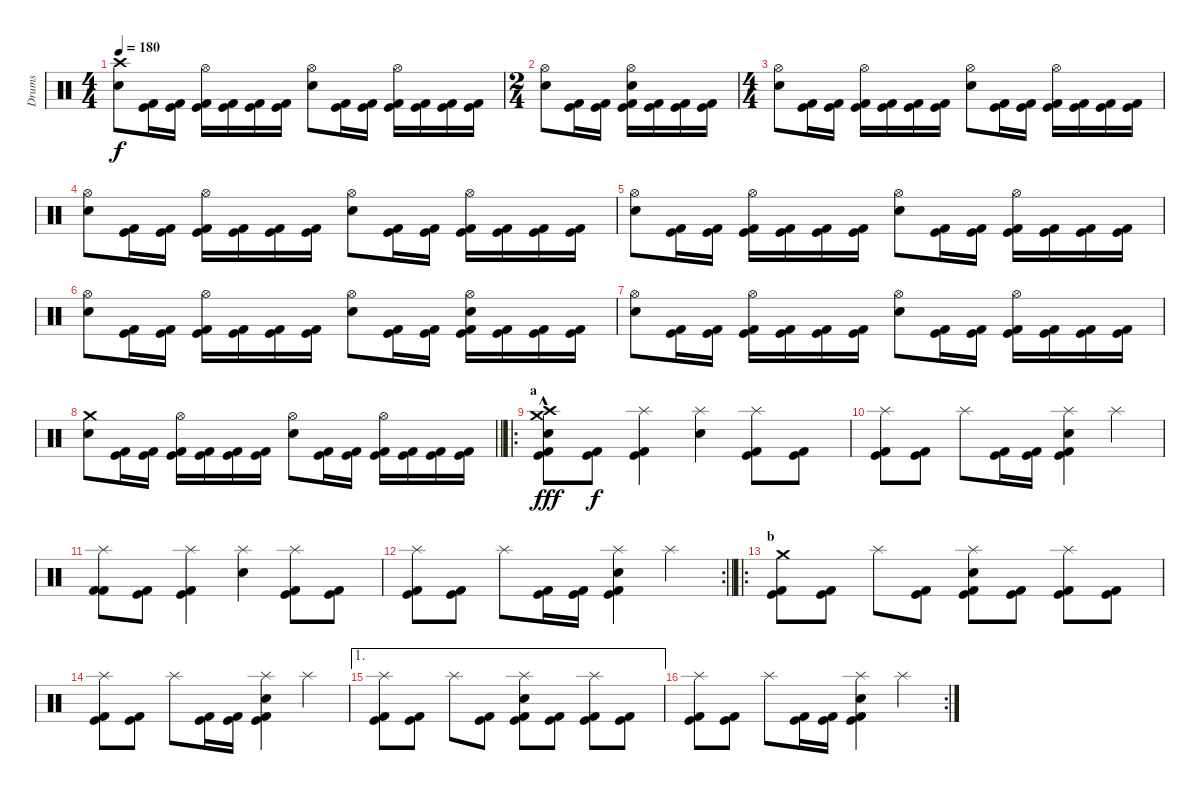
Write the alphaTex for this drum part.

\track ("Drums" "Drums") {instrument percussion}
\staff {score}
\articulation defaults
\ts (4 4)
\tempo 180
\clef neutral
\ks c
("Crash high (hit)" "Electric Snare (hit)").8{dy f} ("Kick (hit) 2" "Kick (hit)").16 ("Kick (hit) 2" "Kick (hit)").16 ("Kick (hit) 2" "Hi-Hat (open)" "Kick (hit)").16 ("Kick (hit) 2" "Kick (hit)").16 ("Kick (hit) 2" "Kick (hit)").16 ("Kick (hit) 2" "Kick (hit)").16 ("Hi-Hat (open)" "Electric Snare (hit)").8 ("Kick (hit) 2" "Kick (hit)").16 ("Kick (hit) 2" "Kick (hit)").16 ("Kick (hit) 2" "Hi-Hat (open)" "Kick (hit)").16 ("Kick (hit) 2" "Kick (hit)").16 ("Kick (hit) 2" "Kick (hit)").16 ("Kick (hit) 2" "Kick (hit)").16 |
\ts (2 4)
("Hi-Hat (open)" "Electric Snare (hit)").8 ("Kick (hit) 2" "Kick (hit)").16 ("Kick (hit) 2" "Kick (hit)").16 ("Kick (hit) 2" "Electric Snare (hit)" "Hi-Hat (open)" "Kick (hit)").16 ("Kick (hit) 2" "Kick (hit)").16 ("Kick (hit) 2" "Kick (hit)").16 ("Kick (hit) 2" "Kick (hit)").16 |
\ts (4 4)
("Hi-Hat (open)" "Electric Snare (hit)").8 ("Kick (hit) 2" "Kick (hit)").16 ("Kick (hit) 2" "Kick (hit)").16 ("Kick (hit) 2" "Hi-Hat (open)" "Kick (hit)").16 ("Kick (hit) 2" "Kick (hit)").16 ("Kick (hit) 2" "Kick (hit)").16 ("Kick (hit) 2" "Kick (hit)").16 ("Hi-Hat (open)" "Electric Snare (hit)").8 ("Kick (hit) 2" "Kick (hit)").16 ("Kick (hit) 2" "Kick (hit)").16 ("Kick (hit) 2" "Hi-Hat (open)" "Kick (hit)").16 ("Kick (hit) 2" "Kick (hit)").16 ("Kick (hit) 2" "Kick (hit)").16 ("Kick (hit) 2" "Kick (hit)").16 |
("Hi-Hat (open)" "Electric Snare (hit)").8 ("Kick (hit) 2" "Kick (hit)").16 ("Kick (hit) 2" "Kick (hit)").16 ("Kick (hit) 2" "Hi-Hat (open)" "Kick (hit)").16 ("Kick (hit) 2" "Kick (hit)").16 ("Kick (hit) 2" "Kick (hit)").16 ("Kick (hit) 2" "Kick (hit)").16 ("Hi-Hat (open)" "Electric Snare (hit)").8 ("Kick (hit) 2" "Kick (hit)").16 ("Kick (hit) 2" "Kick (hit)").16 ("Kick (hit) 2" "Hi-Hat (open)" "Kick (hit)").16 ("Kick (hit) 2" "Kick (hit)").16 ("Kick (hit) 2" "Kick (hit)").16 ("Kick (hit) 2" "Kick (hit)").16 |
("Hi-Hat (open)" "Electric Snare (hit)").8 ("Kick (hit) 2" "Kick (hit)").16 ("Kick (hit) 2" "Kick (hit)").16 ("Kick (hit) 2" "Hi-Hat (open)" "Kick (hit)").16 ("Kick (hit) 2" "Kick (hit)").16 ("Kick (hit) 2" "Kick (hit)").16 ("Kick (hit) 2" "Kick (hit)").16 ("Hi-Hat (open)" "Electric Snare (hit)").8 ("Kick (hit) 2" "Kick (hit)").16 ("Kick (hit) 2" "Kick (hit)").16 ("Kick (hit) 2" "Hi-Hat (open)" "Kick (hit)").16 ("Kick (hit) 2" "Kick (hit)").16 ("Kick (hit) 2" "Kick (hit)").16 ("Kick (hit) 2" "Kick (hit)").16 |
("Hi-Hat (open)" "Electric Snare (hit)").8 ("Kick (hit) 2" "Kick (hit)").16 ("Kick (hit) 2" "Kick (hit)").16 ("Kick (hit) 2" "Hi-Hat (open)" "Kick (hit)").16 ("Kick (hit) 2" "Kick (hit)").16 ("Kick (hit) 2" "Kick (hit)").16 ("Kick (hit) 2" "Kick (hit)").16 ("Hi-Hat (open)" "Electric Snare (hit)").8 ("Kick (hit) 2" "Kick (hit)").16 ("Kick (hit) 2" "Kick (hit)").16 ("Kick (hit) 2" "Hi-Hat (open)" "Kick (hit)" "Electric Snare (hit)").16 ("Kick (hit) 2" "Kick (hit)").16 ("Kick (hit) 2" "Kick (hit)").16 ("Kick (hit) 2" "Kick (hit)").16 |
("Hi-Hat (open)" "Electric Snare (hit)").8 ("Kick (hit) 2" "Kick (hit)").16 ("Kick (hit) 2" "Kick (hit)").16 ("Kick (hit) 2" "Hi-Hat (open)" "Kick (hit)").16 ("Kick (hit) 2" "Kick (hit)").16 ("Kick (hit) 2" "Kick (hit)").16 ("Kick (hit) 2" "Kick (hit)").16 ("Hi-Hat (open)" "Electric Snare (hit)").8 ("Kick (hit) 2" "Kick (hit)").16 ("Kick (hit) 2" "Kick (hit)").16 ("Kick (hit) 2" "Hi-Hat (open)" "Kick (hit)").16 ("Kick (hit) 2" "Kick (hit)").16 ("Kick (hit) 2" "Kick (hit)").16 ("Kick (hit) 2" "Kick (hit)").16 |
\barLineRight lightlight
("Crash medium (hit)" "Electric Snare (hit)").8 ("Kick (hit) 2" "Kick (hit)").16 ("Kick (hit) 2" "Kick (hit)").16 ("Kick (hit) 2" "Hi-Hat (open)" "Kick (hit)").16 ("Kick (hit) 2" "Kick (hit)").16 ("Kick (hit) 2" "Kick (hit)").16 ("Kick (hit) 2" "Kick (hit)").16 ("Hi-Hat (open)" "Electric Snare (hit)").8 ("Kick (hit) 2" "Kick (hit)").16 ("Kick (hit) 2" "Kick (hit)").16 ("Kick (hit) 2" "Hi-Hat (open)" "Kick (hit)").16 ("Kick (hit) 2" "Kick (hit)").16 ("Kick (hit) 2" "Kick (hit)").16 ("Kick (hit) 2" "Kick (hit)").16 |
\ro
\section ("" "a")
("Kick (hit) 2" "Snare (hit) 2" "Kick (hit)" "Crash high (hit)"{hac} "Crash medium (hit)"{hac}).8{dy fff} ("Kick (hit) 2" "Kick (hit)").8{dy f} ("Kick (hit) 2" "Kick (hit)" "Splash (hit)").4 ("Electric Snare (hit)" "Splash (hit)").4 ("Kick (hit) 2" "Kick (hit)" "Splash (hit)").8 ("Kick (hit) 2" "Kick (hit)").8 |
("Kick (hit) 2" "Kick (hit)" "Splash (hit)").8 ("Kick (hit) 2" "Kick (hit)").8 "Splash (hit)".8 ("Kick (hit) 2" "Kick (hit)").16 ("Kick (hit) 2" "Kick (hit)").16 ("Kick (hit) 2" "Electric Snare (hit)" "Kick (hit)" "Splash (hit)").4 "Splash (hit)".4 |
("Kick (hit) 2" "Kick (hit) 2" "Splash (hit)").8 ("Kick (hit) 2" "Kick (hit)").8 ("Kick (hit) 2" "Kick (hit)" "Splash (hit)").4 ("Electric Snare (hit)" "Splash (hit)").4 ("Kick (hit) 2" "Kick (hit)" "Splash (hit)").8 ("Kick (hit) 2" "Kick (hit)").8 |
\rc 2
\barLineRight lightlight
("Kick (hit) 2" "Kick (hit)" "Splash (hit)").8 ("Kick (hit) 2" "Kick (hit)").8 "Splash (hit)".8 ("Kick (hit) 2" "Kick (hit)").16 ("Kick (hit) 2" "Kick (hit)").16 ("Kick (hit) 2" "Electric Snare (hit)" "Kick (hit)" "Splash (hit)").4 "Splash (hit)".4 |
\ro
\section ("" "b")
("Kick (hit) 2" "Kick (hit)" "Crash medium (hit)").8 ("Kick (hit) 2" "Kick (hit)").8 "Splash (hit)".8 ("Kick (hit) 2" "Kick (hit)").8 ("Kick (hit) 2" "Kick (hit)" "Splash (hit)" "Electric Snare (hit)").8 ("Kick (hit) 2" "Kick (hit)").8 ("Kick (hit) 2" "Kick (hit)" "Splash (hit)").8 ("Kick (hit) 2" "Kick (hit)").8 |
("Kick (hit) 2" "Kick (hit)" "Splash (hit)").8 ("Kick (hit) 2" "Kick (hit)").8 "Splash (hit)".8 ("Kick (hit) 2" "Kick (hit)").16 ("Kick (hit) 2" "Kick (hit)").16 ("Kick (hit) 2" "Electric Snare (hit)" "Kick (hit)" "Splash (hit)").4 "Splash (hit)".4 |
\ae 1
("Kick (hit) 2" "Kick (hit)" "Splash (hit)").8 ("Kick (hit) 2" "Kick (hit)").8 "Splash (hit)".8 ("Kick (hit) 2" "Kick (hit)").8 ("Kick (hit) 2" "Kick (hit)" "Splash (hit)" "Electric Snare (hit)").8 ("Kick (hit) 2" "Kick (hit)").8 ("Kick (hit) 2" "Kick (hit)" "Splash (hit)").8 ("Kick (hit) 2" "Kick (hit)").8 |
\rc 2
("Kick (hit) 2" "Kick (hit)" "Splash (hit)").8 ("Kick (hit) 2" "Kick (hit)").8 "Splash (hit)".8 ("Kick (hit) 2" "Kick (hit)").16 ("Kick (hit) 2" "Kick (hit)").16 ("Kick (hit) 2" "Electric Snare (hit)" "Kick (hit)" "Splash (hit)").4 "Splash (hit)".4
